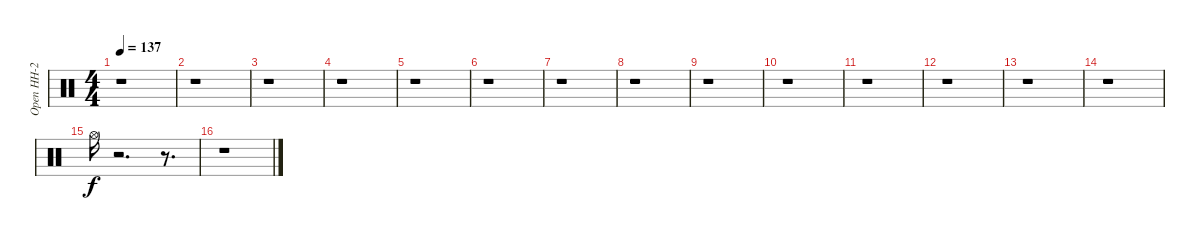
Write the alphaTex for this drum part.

\track ("Open HH-2" "Open HH-2") {instrument percussion}
\staff {score}
\articulation defaults
\ts (4 4)
\tempo 137
\clef neutral
\ks c
r.1{dy ff} |
r.1 |
r.1 |
r.1 |
r.1 |
r.1 |
r.1 |
r.1 |
r.1 |
r.1 |
r.1 |
r.1 |
r.1 |
r.1 |
"Hi-Hat (open)".16{dy f} r.2{d} r.8{d} |
r.1
